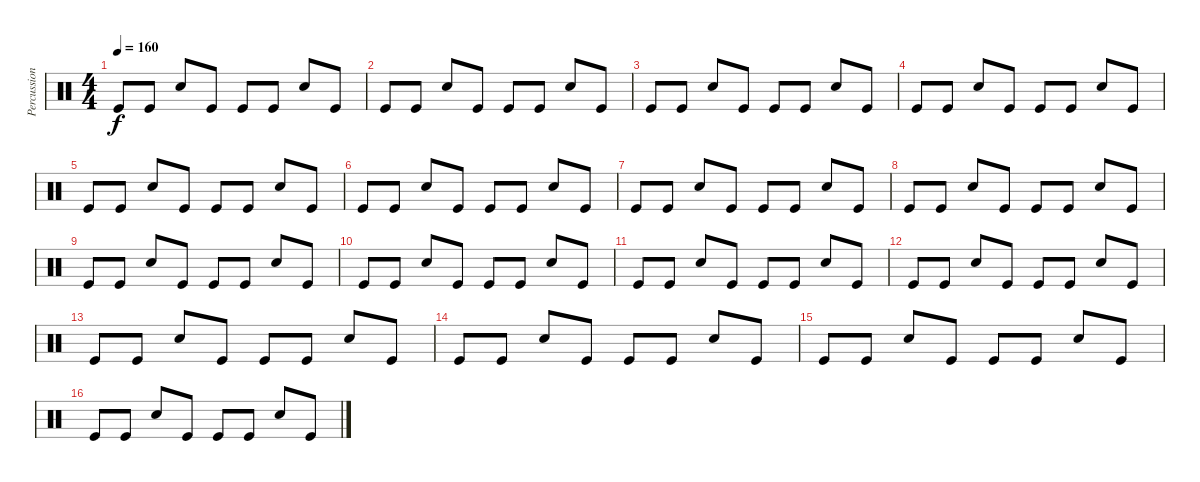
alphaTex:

\track ("Percussion" "Percussion") {instrument percussion}
\staff {score}
\articulation defaults
\ts (4 4)
\tempo 160
\clef neutral
\ks c "Kick (hit)".8{dy f} "Kick (hit)".8 "Snare (hit) 2".8 "Kick (hit)".8 "Kick (hit)".8 "Kick (hit)".8 "Snare (hit) 2".8 "Kick (hit)".8
|
"Kick (hit)".8 "Kick (hit)".8 "Snare (hit) 2".8 "Kick (hit)".8 "Kick (hit)".8 "Kick (hit)".8 "Snare (hit) 2".8 "Kick (hit)".8 |
"Kick (hit)".8 "Kick (hit)".8 "Snare (hit) 2".8 "Kick (hit)".8 "Kick (hit)".8 "Kick (hit)".8 "Snare (hit) 2".8 "Kick (hit)".8 |
"Kick (hit)".8 "Kick (hit)".8 "Snare (hit) 2".8 "Kick (hit)".8 "Kick (hit)".8 "Kick (hit)".8 "Snare (hit) 2".8 "Kick (hit)".8 |
"Kick (hit)".8 "Kick (hit)".8 "Snare (hit) 2".8 "Kick (hit)".8 "Kick (hit)".8 "Kick (hit)".8 "Snare (hit) 2".8 "Kick (hit)".8 |
"Kick (hit)".8 "Kick (hit)".8 "Snare (hit) 2".8 "Kick (hit)".8 "Kick (hit)".8 "Kick (hit)".8 "Snare (hit) 2".8 "Kick (hit)".8 |
"Kick (hit)".8 "Kick (hit)".8 "Snare (hit) 2".8 "Kick (hit)".8 "Kick (hit)".8 "Kick (hit)".8 "Snare (hit) 2".8 "Kick (hit)".8 |
"Kick (hit)".8 "Kick (hit)".8 "Snare (hit) 2".8 "Kick (hit)".8 "Kick (hit)".8 "Kick (hit)".8 "Snare (hit) 2".8 "Kick (hit)".8 |
"Kick (hit)".8 "Kick (hit)".8 "Snare (hit) 2".8 "Kick (hit)".8 "Kick (hit)".8 "Kick (hit)".8 "Snare (hit) 2".8 "Kick (hit)".8 |
"Kick (hit)".8 "Kick (hit)".8 "Snare (hit) 2".8 "Kick (hit)".8 "Kick (hit)".8 "Kick (hit)".8 "Snare (hit) 2".8 "Kick (hit)".8 |
"Kick (hit)".8 "Kick (hit)".8 "Snare (hit) 2".8 "Kick (hit)".8 "Kick (hit)".8 "Kick (hit)".8 "Snare (hit) 2".8 "Kick (hit)".8 |
"Kick (hit)".8 "Kick (hit)".8 "Snare (hit) 2".8 "Kick (hit)".8 "Kick (hit)".8 "Kick (hit)".8 "Snare (hit) 2".8 "Kick (hit)".8 |
"Kick (hit)".8 "Kick (hit)".8 "Snare (hit) 2".8 "Kick (hit)".8 "Kick (hit)".8 "Kick (hit)".8 "Snare (hit) 2".8 "Kick (hit)".8 |
"Kick (hit)".8 "Kick (hit)".8 "Snare (hit) 2".8 "Kick (hit)".8 "Kick (hit)".8 "Kick (hit)".8 "Snare (hit) 2".8 "Kick (hit)".8 |
"Kick (hit)".8 "Kick (hit)".8 "Snare (hit) 2".8 "Kick (hit)".8 "Kick (hit)".8 "Kick (hit)".8 "Snare (hit) 2".8 "Kick (hit)".8 |
"Kick (hit)".8 "Kick (hit)".8 "Snare (hit) 2".8 "Kick (hit)".8 "Kick (hit)".8 "Kick (hit)".8 "Snare (hit) 2".8 "Kick (hit)".8
